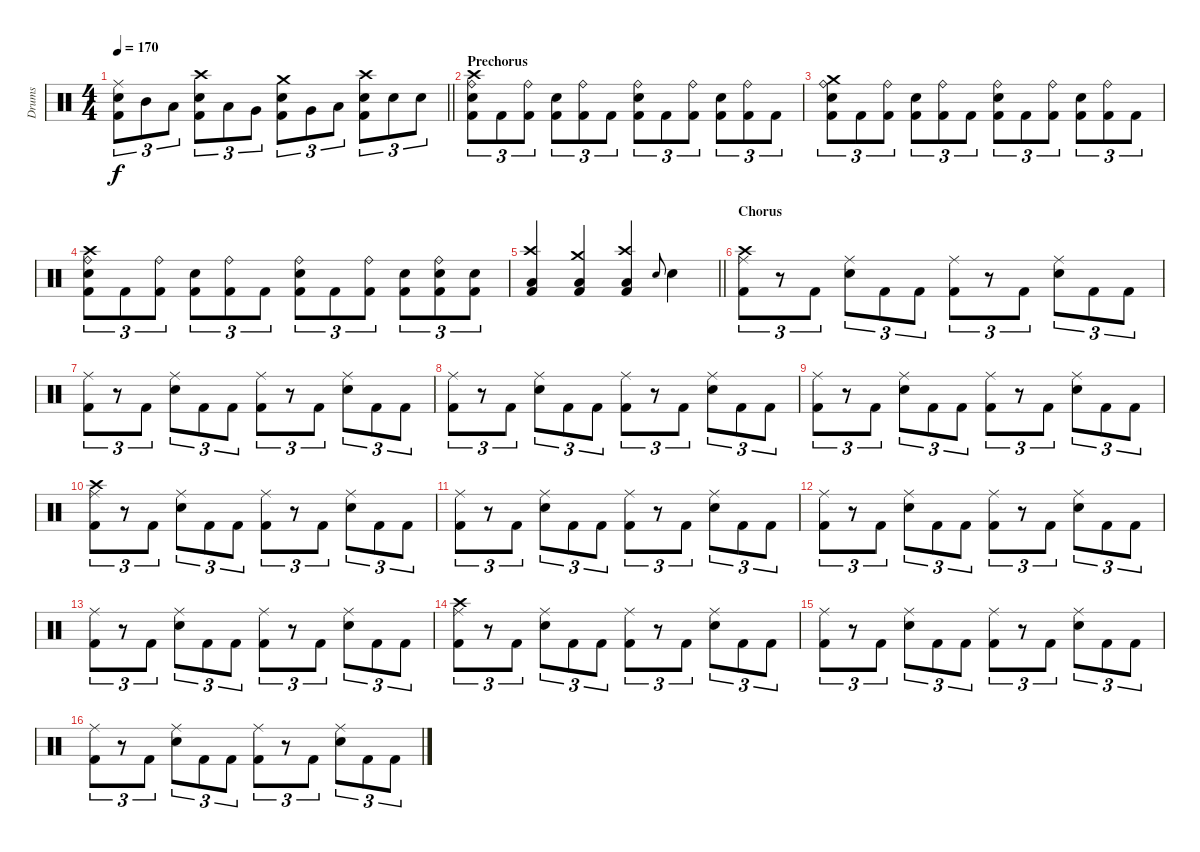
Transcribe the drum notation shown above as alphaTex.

\track ("Drums" "Drums") {instrument percussion}
\staff {score}
\articulation defaults
\ts (4 4)
\tempo 170
\clef neutral
\barLineRight lightlight
\ks c
("Ride (middle)" "Snare (hit) 2" "Kick (hit) 2").8{tu (3 2) dy f} "Mid Tom (hit)".8{tu (3 2)} "Low Tom (hit)".8{tu (3 2)} ("Crash high (hit)" "Snare (hit) 2" "Kick (hit) 2").8{tu (3 2)} "Low Tom (hit)".8{tu (3 2)} "Very Low Tom (hit)".8{tu (3 2)} ("Crash medium (hit)" "Snare (hit) 2" "Kick (hit) 2").8{tu (3 2)} "Very Low Tom (hit)".8{tu (3 2)} "Low Floor Tom (hit)".8{tu (3 2)} ("Crash high (hit)" "Snare (hit) 2" "Kick (hit) 2").8{tu (3 2)} "Snare (hit) 2".8{tu (3 2)} "Snare (hit) 2".8{tu (3 2)} |
\section ("" "Prechorus")
("Crash high (hit)" "Ride (bell)" "Snare (hit) 2" "Kick (hit) 2").8{tu (3 2)} "Kick (hit) 2".8{tu (3 2)} ("Ride (bell)" "Kick (hit) 2").8{tu (3 2)} ("Snare (hit) 2" "Kick (hit) 2").8{tu (3 2)} ("Ride (bell)" "Kick (hit) 2").8{tu (3 2)} "Kick (hit) 2".8{tu (3 2)} ("Ride (bell)" "Snare (hit) 2" "Kick (hit) 2").8{tu (3 2)} "Kick (hit) 2".8{tu (3 2)} ("Ride (bell)" "Kick (hit) 2").8{tu (3 2)} ("Snare (hit) 2" "Kick (hit) 2").8{tu (3 2)} ("Ride (bell)" "Kick (hit) 2").8{tu (3 2)} "Kick (hit) 2".8{tu (3 2)} |
("Crash medium (hit)" "Ride (bell)" "Snare (hit) 2" "Kick (hit) 2").8{tu (3 2)} "Kick (hit) 2".8{tu (3 2)} ("Ride (bell)" "Kick (hit) 2").8{tu (3 2)} ("Snare (hit) 2" "Kick (hit) 2").8{tu (3 2)} ("Ride (bell)" "Kick (hit) 2").8{tu (3 2)} "Kick (hit) 2".8{tu (3 2)} ("Ride (bell)" "Snare (hit) 2" "Kick (hit) 2").8{tu (3 2)} "Kick (hit) 2".8{tu (3 2)} ("Ride (bell)" "Kick (hit) 2").8{tu (3 2)} ("Snare (hit) 2" "Kick (hit) 2").8{tu (3 2)} ("Ride (bell)" "Kick (hit) 2").8{tu (3 2)} "Kick (hit) 2".8{tu (3 2)} |
("Crash high (hit)" "Ride (bell)" "Snare (hit) 2" "Kick (hit) 2").8{tu (3 2)} "Kick (hit) 2".8{tu (3 2)} ("Ride (bell)" "Kick (hit) 2").8{tu (3 2)} ("Snare (hit) 2" "Kick (hit) 2").8{tu (3 2)} ("Ride (bell)" "Kick (hit) 2").8{tu (3 2)} "Kick (hit) 2".8{tu (3 2)} ("Ride (bell)" "Snare (hit) 2" "Kick (hit) 2").8{tu (3 2)} "Kick (hit) 2".8{tu (3 2)} ("Ride (bell)" "Kick (hit) 2").8{tu (3 2)} ("Snare (hit) 2" "Kick (hit) 2").8{tu (3 2)} ("Ride (bell)" "Snare (hit) 2" "Kick (hit) 2").8{tu (3 2)} ("Snare (hit) 2" "Kick (hit) 2").8{tu (3 2)} |
\barLineRight lightlight
("Crash high (hit)" "Low Floor Tom (hit)" "Kick (hit) 2").4 ("Crash medium (hit)" "Low Floor Tom (hit)" "Kick (hit) 2").4 ("Crash high (hit)" "Low Floor Tom (hit)" "Kick (hit) 2").4 "Snare (hit) 2".8{gr onbeat} "Snare (hit) 2".4 |
\section ("" "Chorus")
("Crash high (hit)" "Ride (middle)" "Kick (hit) 2").8{tu (3 2)} r.8{tu (3 2)} "Kick (hit) 2".8{tu (3 2)} ("Ride (middle)" "Snare (hit) 2").8{tu (3 2)} "Kick (hit) 2".8{tu (3 2)} "Kick (hit) 2".8{tu (3 2)} ("Ride (middle)" "Kick (hit) 2").8{tu (3 2)} r.8{tu (3 2)} "Kick (hit) 2".8{tu (3 2)} ("Ride (middle)" "Snare (hit) 2").8{tu (3 2)} "Kick (hit) 2".8{tu (3 2)} "Kick (hit) 2".8{tu (3 2)} |
("Ride (middle)" "Kick (hit) 2").8{tu (3 2)} r.8{tu (3 2)} "Kick (hit) 2".8{tu (3 2)} ("Ride (middle)" "Snare (hit) 2").8{tu (3 2)} "Kick (hit) 2".8{tu (3 2)} "Kick (hit) 2".8{tu (3 2)} ("Ride (middle)" "Kick (hit) 2").8{tu (3 2)} r.8{tu (3 2)} "Kick (hit) 2".8{tu (3 2)} ("Ride (middle)" "Snare (hit) 2").8{tu (3 2)} "Kick (hit) 2".8{tu (3 2)} "Kick (hit) 2".8{tu (3 2)} |
("Ride (middle)" "Kick (hit) 2").8{tu (3 2)} r.8{tu (3 2)} "Kick (hit) 2".8{tu (3 2)} ("Ride (middle)" "Snare (hit) 2").8{tu (3 2)} "Kick (hit) 2".8{tu (3 2)} "Kick (hit) 2".8{tu (3 2)} ("Ride (middle)" "Kick (hit) 2").8{tu (3 2)} r.8{tu (3 2)} "Kick (hit) 2".8{tu (3 2)} ("Ride (middle)" "Snare (hit) 2").8{tu (3 2)} "Kick (hit) 2".8{tu (3 2)} "Kick (hit) 2".8{tu (3 2)} |
("Ride (middle)" "Kick (hit) 2").8{tu (3 2)} r.8{tu (3 2)} "Kick (hit) 2".8{tu (3 2)} ("Ride (middle)" "Snare (hit) 2").8{tu (3 2)} "Kick (hit) 2".8{tu (3 2)} "Kick (hit) 2".8{tu (3 2)} ("Ride (middle)" "Kick (hit) 2").8{tu (3 2)} r.8{tu (3 2)} "Kick (hit) 2".8{tu (3 2)} ("Ride (middle)" "Snare (hit) 2").8{tu (3 2)} "Kick (hit) 2".8{tu (3 2)} "Kick (hit) 2".8{tu (3 2)} |
("Crash high (hit)" "Ride (middle)" "Kick (hit) 2").8{tu (3 2)} r.8{tu (3 2)} "Kick (hit) 2".8{tu (3 2)} ("Ride (middle)" "Snare (hit) 2").8{tu (3 2)} "Kick (hit) 2".8{tu (3 2)} "Kick (hit) 2".8{tu (3 2)} ("Ride (middle)" "Kick (hit) 2").8{tu (3 2)} r.8{tu (3 2)} "Kick (hit) 2".8{tu (3 2)} ("Ride (middle)" "Snare (hit) 2").8{tu (3 2)} "Kick (hit) 2".8{tu (3 2)} "Kick (hit) 2".8{tu (3 2)} |
("Ride (middle)" "Kick (hit) 2").8{tu (3 2)} r.8{tu (3 2)} "Kick (hit) 2".8{tu (3 2)} ("Ride (middle)" "Snare (hit) 2").8{tu (3 2)} "Kick (hit) 2".8{tu (3 2)} "Kick (hit) 2".8{tu (3 2)} ("Ride (middle)" "Kick (hit) 2").8{tu (3 2)} r.8{tu (3 2)} "Kick (hit) 2".8{tu (3 2)} ("Ride (middle)" "Snare (hit) 2").8{tu (3 2)} "Kick (hit) 2".8{tu (3 2)} "Kick (hit) 2".8{tu (3 2)} |
("Ride (middle)" "Kick (hit) 2").8{tu (3 2)} r.8{tu (3 2)} "Kick (hit) 2".8{tu (3 2)} ("Ride (middle)" "Snare (hit) 2").8{tu (3 2)} "Kick (hit) 2".8{tu (3 2)} "Kick (hit) 2".8{tu (3 2)} ("Ride (middle)" "Kick (hit) 2").8{tu (3 2)} r.8{tu (3 2)} "Kick (hit) 2".8{tu (3 2)} ("Ride (middle)" "Snare (hit) 2").8{tu (3 2)} "Kick (hit) 2".8{tu (3 2)} "Kick (hit) 2".8{tu (3 2)} |
("Ride (middle)" "Kick (hit) 2").8{tu (3 2)} r.8{tu (3 2)} "Kick (hit) 2".8{tu (3 2)} ("Ride (middle)" "Snare (hit) 2").8{tu (3 2)} "Kick (hit) 2".8{tu (3 2)} "Kick (hit) 2".8{tu (3 2)} ("Ride (middle)" "Kick (hit) 2").8{tu (3 2)} r.8{tu (3 2)} "Kick (hit) 2".8{tu (3 2)} ("Ride (middle)" "Snare (hit) 2").8{tu (3 2)} "Kick (hit) 2".8{tu (3 2)} "Kick (hit) 2".8{tu (3 2)} |
("Crash high (hit)" "Ride (middle)" "Kick (hit) 2").8{tu (3 2)} r.8{tu (3 2)} "Kick (hit) 2".8{tu (3 2)} ("Ride (middle)" "Snare (hit) 2").8{tu (3 2)} "Kick (hit) 2".8{tu (3 2)} "Kick (hit) 2".8{tu (3 2)} ("Ride (middle)" "Kick (hit) 2").8{tu (3 2)} r.8{tu (3 2)} "Kick (hit) 2".8{tu (3 2)} ("Ride (middle)" "Snare (hit) 2").8{tu (3 2)} "Kick (hit) 2".8{tu (3 2)} "Kick (hit) 2".8{tu (3 2)} |
("Ride (middle)" "Kick (hit) 2").8{tu (3 2)} r.8{tu (3 2)} "Kick (hit) 2".8{tu (3 2)} ("Ride (middle)" "Snare (hit) 2").8{tu (3 2)} "Kick (hit) 2".8{tu (3 2)} "Kick (hit) 2".8{tu (3 2)} ("Ride (middle)" "Kick (hit) 2").8{tu (3 2)} r.8{tu (3 2)} "Kick (hit) 2".8{tu (3 2)} ("Ride (middle)" "Snare (hit) 2").8{tu (3 2)} "Kick (hit) 2".8{tu (3 2)} "Kick (hit) 2".8{tu (3 2)} |
("Ride (middle)" "Kick (hit) 2").8{tu (3 2)} r.8{tu (3 2)} "Kick (hit) 2".8{tu (3 2)} ("Ride (middle)" "Snare (hit) 2").8{tu (3 2)} "Kick (hit) 2".8{tu (3 2)} "Kick (hit) 2".8{tu (3 2)} ("Ride (middle)" "Kick (hit) 2").8{tu (3 2)} r.8{tu (3 2)} "Kick (hit) 2".8{tu (3 2)} ("Ride (middle)" "Snare (hit) 2").8{tu (3 2)} "Kick (hit) 2".8{tu (3 2)} "Kick (hit) 2".8{tu (3 2)}
